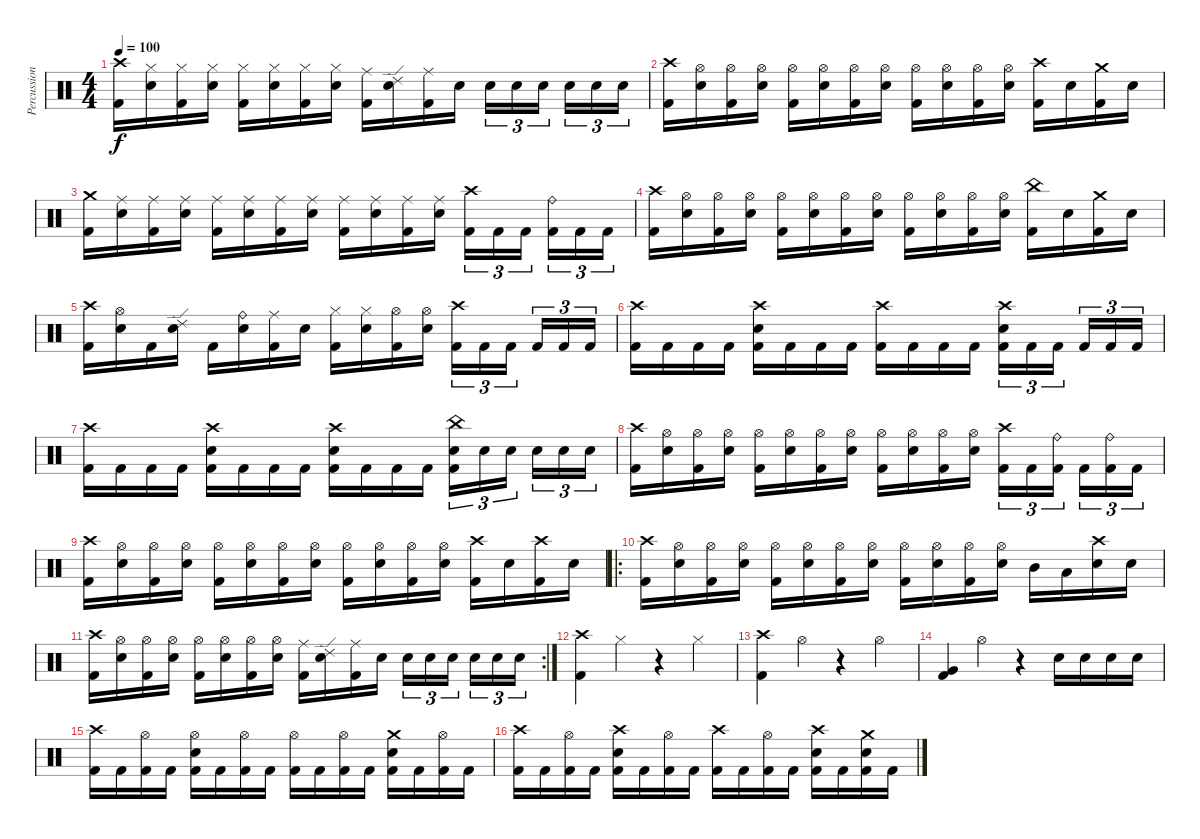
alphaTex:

\track ("Percussion" "Percussion") {instrument percussion}
\staff {score}
\articulation defaults
\ts (4 4)
\tempo 100
\clef neutral
\ks c
("Crash high (hit)" "Kick (hit) 2").16{dy f} ("Hi-Hat (closed)" "Snare (hit) 2").16 ("Hi-Hat (closed)" "Kick (hit) 2").16 ("Hi-Hat (closed)" "Snare (hit) 2").16 ("Hi-Hat (closed)" "Kick (hit) 2").16 ("Hi-Hat (closed)" "Snare (hit) 2").16 ("Hi-Hat (closed)" "Kick (hit) 2").16 ("Hi-Hat (closed)" "Snare (hit) 2").16 ("Ride (middle)" "Kick (hit) 2").16 ("Ride (edge) 2" "Snare (hit) 2").16 ("Ride (middle)" "Kick (hit) 2").16 "Snare (hit) 2".16 "Snare (hit) 2".16{tu (3 2)} "Snare (hit) 2".16{tu (3 2)} "Snare (hit) 2".16{tu (3 2) beam splitsecondary} "Snare (hit) 2".16{tu (3 2)} "Snare (hit) 2".16{tu (3 2)} "Snare (hit) 2".16{tu (3 2)} |
("Crash high (hit)" "Kick (hit) 2").16 ("Hi-Hat (open)" "Snare (hit) 2").16 ("Hi-Hat (open)" "Kick (hit) 2").16 ("Hi-Hat (open)" "Snare (hit) 2").16 ("Hi-Hat (open)" "Kick (hit) 2").16 ("Hi-Hat (open)" "Snare (hit) 2").16 ("Hi-Hat (open)" "Kick (hit) 2").16 ("Hi-Hat (open)" "Snare (hit) 2").16 ("Hi-Hat (open)" "Kick (hit) 2").16 ("Hi-Hat (open)" "Snare (hit) 2").16 ("Hi-Hat (open)" "Kick (hit) 2").16 ("Hi-Hat (open)" "Snare (hit) 2").16 ("Crash high (hit)" "Kick (hit) 2").16 "Snare (hit) 2".16 ("Crash medium (hit)" "Kick (hit) 2").16 "Snare (hit) 2".16 |
("Crash medium (hit)" "Kick (hit) 2").16 ("Ride (middle)" "Snare (hit) 2").16 ("Ride (middle)" "Kick (hit) 2").16 ("Ride (middle)" "Snare (hit) 2").16 ("Ride (middle)" "Kick (hit) 2").16 ("Ride (middle)" "Snare (hit) 2").16 ("Ride (middle)" "Kick (hit) 2").16 ("Ride (middle)" "Snare (hit) 2").16 ("Ride (middle)" "Kick (hit) 2").16 ("Ride (middle)" "Snare (hit) 2").16 ("Ride (middle)" "Kick (hit) 2").16 ("Ride (middle)" "Snare (hit) 2").16 ("Crash high (hit)" "Kick (hit) 2").16{tu (3 2)} "Kick (hit) 2".16{tu (3 2)} "Kick (hit) 2".16{tu (3 2) beam splitsecondary} ("Ride (bell)" "Kick (hit) 2").16{tu (3 2)} "Kick (hit) 2".16{tu (3 2)} "Kick (hit) 2".16{tu (3 2)} |
("Crash high (hit)" "Kick (hit) 2").16 ("Hi-Hat (open)" "Snare (hit) 2").16 ("Hi-Hat (open)" "Kick (hit) 2").16 ("Hi-Hat (open)" "Snare (hit) 2").16 ("Hi-Hat (open)" "Kick (hit) 2").16 ("Hi-Hat (open)" "Snare (hit) 2").16 ("Hi-Hat (open)" "Kick (hit) 2").16 ("Hi-Hat (open)" "Snare (hit) 2").16 ("Hi-Hat (open)" "Kick (hit) 2").16 ("Hi-Hat (open)" "Snare (hit) 2").16 ("Hi-Hat (open)" "Kick (hit) 2").16 ("Hi-Hat (open)" "Snare (hit) 2").16 ("China (hit)" "Kick (hit) 2").16 "Snare (hit) 2".16 ("Crash medium (hit)" "Kick (hit) 2").16 "Snare (hit) 2".16 |
("Crash high (hit)" "Kick (hit) 2").16 ("Hi-Hat (open)" "Snare (hit) 2").16 "Kick (hit) 2".16 ("Ride (edge) 2" "Snare (hit) 2").16 "Kick (hit) 2".16 ("Ride (bell)" "Snare (hit) 2").16 ("Ride (middle)" "Kick (hit) 2").16 "Snare (hit) 2".16 ("Hi-Hat (closed)" "Kick (hit) 2").16 ("Hi-Hat (closed)" "Snare (hit) 2").16 ("Hi-Hat (open)" "Kick (hit) 2").16 ("Hi-Hat (open)" "Snare (hit) 2").16 ("Crash high (hit)" "Kick (hit) 2").16{tu (3 2)} "Kick (hit) 2".16{tu (3 2)} "Kick (hit) 2".16{tu (3 2) beam splitsecondary} "Kick (hit) 2".16{tu (3 2)} "Kick (hit) 2".16{tu (3 2)} "Kick (hit) 2".16{tu (3 2)} |
("Crash high (hit)" "Kick (hit) 2").16 "Kick (hit) 2".16 "Kick (hit) 2".16 "Kick (hit) 2".16 ("Crash high (hit)" "Snare (hit) 2" "Kick (hit) 2").16 "Kick (hit) 2".16 "Kick (hit) 2".16 "Kick (hit) 2".16 ("Crash high (hit)" "Kick (hit) 2").16 "Kick (hit) 2".16 "Kick (hit) 2".16 "Kick (hit) 2".16 ("Crash high (hit)" "Snare (hit) 2" "Kick (hit) 2").16{tu (3 2)} "Kick (hit) 2".16{tu (3 2)} "Kick (hit) 2".16{tu (3 2) beam splitsecondary} "Kick (hit) 2".16{tu (3 2)} "Kick (hit) 2".16{tu (3 2)} "Kick (hit) 2".16{tu (3 2)} |
("Crash high (hit)" "Kick (hit) 2").16 "Kick (hit) 2".16 "Kick (hit) 2".16 "Kick (hit) 2".16 ("Crash high (hit)" "Snare (hit) 2" "Kick (hit) 2").16 "Kick (hit) 2".16 "Kick (hit) 2".16 "Kick (hit) 2".16 ("Crash high (hit)" "Snare (hit) 2" "Kick (hit) 2").16 "Kick (hit) 2".16 "Kick (hit) 2".16 "Kick (hit) 2".16 ("China (hit)" "Snare (hit) 2" "Kick (hit) 2").16{tu (3 2)} "Snare (hit) 2".16{tu (3 2)} "Snare (hit) 2".16{tu (3 2) beam splitsecondary} "Snare (hit) 2".16{tu (3 2)} "Snare (hit) 2".16{tu (3 2)} "Snare (hit) 2".16{tu (3 2)} |
("Crash high (hit)" "Kick (hit) 2").16 ("Hi-Hat (open)" "Snare (hit) 2").16 ("Hi-Hat (open)" "Kick (hit) 2").16 ("Hi-Hat (open)" "Snare (hit) 2").16 ("Hi-Hat (open)" "Kick (hit) 2").16 ("Hi-Hat (open)" "Snare (hit) 2").16 ("Hi-Hat (open)" "Kick (hit) 2").16 ("Hi-Hat (open)" "Snare (hit) 2").16 ("Hi-Hat (open)" "Kick (hit) 2").16 ("Hi-Hat (open)" "Snare (hit) 2").16 ("Hi-Hat (open)" "Kick (hit) 2").16 ("Hi-Hat (open)" "Snare (hit) 2").16 ("Crash high (hit)" "Kick (hit) 2").16{tu (3 2)} "Kick (hit) 2".16{tu (3 2)} ("Ride (bell)" "Kick (hit) 2").16{tu (3 2) beam splitsecondary} "Kick (hit) 2".16{tu (3 2)} ("Ride (bell)" "Kick (hit) 2").16{tu (3 2)} "Kick (hit) 2".16{tu (3 2)} |
("Crash high (hit)" "Kick (hit) 2").16 ("Hi-Hat (open)" "Snare (hit) 2").16 ("Hi-Hat (open)" "Kick (hit) 2").16 ("Hi-Hat (open)" "Snare (hit) 2").16 ("Hi-Hat (open)" "Kick (hit) 2").16 ("Hi-Hat (open)" "Snare (hit) 2").16 ("Hi-Hat (open)" "Kick (hit) 2").16 ("Hi-Hat (open)" "Snare (hit) 2").16 ("Hi-Hat (open)" "Kick (hit) 2").16 ("Hi-Hat (open)" "Snare (hit) 2").16 ("Hi-Hat (open)" "Kick (hit) 2").16 ("Hi-Hat (open)" "Snare (hit) 2").16 ("Crash high (hit)" "Kick (hit) 2").16 "Snare (hit) 2".16 ("Crash high (hit)" "Kick (hit) 2").16 "Snare (hit) 2".16 |
\ro
("Crash high (hit)" "Kick (hit) 2").16 ("Hi-Hat (open)" "Snare (hit) 2").16 ("Hi-Hat (open)" "Kick (hit) 2").16 ("Hi-Hat (open)" "Snare (hit) 2").16 ("Hi-Hat (open)" "Kick (hit) 2").16 ("Hi-Hat (open)" "Snare (hit) 2").16 ("Hi-Hat (open)" "Kick (hit) 2").16 ("Hi-Hat (open)" "Snare (hit) 2").16 ("Hi-Hat (open)" "Kick (hit) 2").16 ("Hi-Hat (open)" "Snare (hit) 2").16 ("Hi-Hat (open)" "Kick (hit) 2").16 ("Hi-Hat (open)" "Snare (hit) 2").16 "Mid Tom (hit)".16 "Low Tom (hit)".16 ("Crash high (hit)" "Snare (hit) 2").16 "Snare (hit) 2".16 |
\rc 2
("Crash high (hit)" "Kick (hit) 2").16 ("Hi-Hat (open)" "Snare (hit) 2").16 ("Hi-Hat (open)" "Kick (hit) 2").16 ("Hi-Hat (open)" "Snare (hit) 2").16 ("Hi-Hat (open)" "Kick (hit) 2").16 ("Hi-Hat (open)" "Snare (hit) 2").16 ("Hi-Hat (open)" "Kick (hit) 2").16 ("Hi-Hat (open)" "Snare (hit) 2").16 ("Ride (middle)" "Kick (hit) 2").16 ("Ride (edge) 2" "Snare (hit) 2").16 ("Ride (middle)" "Kick (hit) 2").16 "Snare (hit) 2".16 "Snare (hit) 2".16{tu (3 2)} "Snare (hit) 2".16{tu (3 2)} "Snare (hit) 2".16{tu (3 2) beam splitsecondary} "Snare (hit) 2".16{tu (3 2)} "Snare (hit) 2".16{tu (3 2)} "Snare (hit) 2".16{tu (3 2)} |
("Crash high (hit)" "Kick (hit) 2").4 "Hi-Hat (closed)".4 r.4 "Hi-Hat (closed)".4 |
("Crash high (hit)" "Kick (hit) 2").4 "Hi-Hat (open)".4 r.4 "Hi-Hat (open)".4 |
("Very Low Tom (hit)" "Kick (hit) 2").4 "Hi-Hat (open)".4 r.4 "Snare (hit) 2".16 "Snare (hit) 2".16 "Snare (hit) 2".16 "Snare (hit) 2".16 |
("Crash high (hit)" "Kick (hit) 2").16 "Kick (hit) 2".16 ("Hi-Hat (open)" "Kick (hit) 2").16 "Kick (hit) 2".16 ("Hi-Hat (open)" "Snare (hit) 2" "Kick (hit) 2").16 "Kick (hit) 2".16 ("Hi-Hat (open)" "Kick (hit) 2").16 "Kick (hit) 2".16 ("Hi-Hat (open)" "Kick (hit) 2").16 "Kick (hit) 2".16 ("Hi-Hat (open)" "Kick (hit) 2").16 "Kick (hit) 2".16 ("Crash medium (hit)" "Snare (hit) 2" "Kick (hit) 2").16 "Kick (hit) 2".16 ("Hi-Hat (open)" "Kick (hit) 2").16 "Kick (hit) 2".16 |
("Crash high (hit)" "Kick (hit) 2").16 "Kick (hit) 2".16 ("Hi-Hat (open)" "Kick (hit) 2").16 "Kick (hit) 2".16 ("Crash high (hit)" "Snare (hit) 2" "Kick (hit) 2").16 "Kick (hit) 2".16 ("Hi-Hat (open)" "Kick (hit) 2").16 "Kick (hit) 2".16 ("Crash high (hit)" "Kick (hit) 2").16 "Kick (hit) 2".16 ("Hi-Hat (open)" "Kick (hit) 2").16 "Kick (hit) 2".16 ("Crash high (hit)" "Snare (hit) 2" "Kick (hit) 2").16 "Kick (hit) 2".16 ("Crash medium (hit)" "Snare (hit) 2" "Kick (hit) 2").16 "Kick (hit) 2".16
